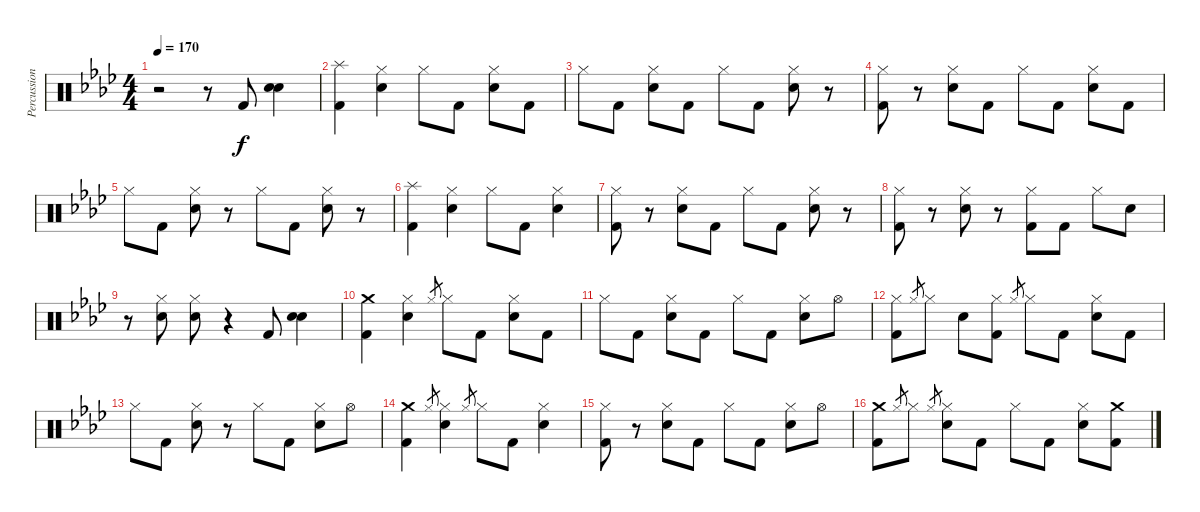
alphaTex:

\track ("Percussion" "Percussion") {instrument percussion}
\staff {score}
\articulation defaults
\ts (4 4)
\tempo 170
\clef neutral
\ks ab
r.2{dy f} r.8 "Kick (hit) 2".8 ("Electric Snare (hit)" "Electric Snare (hit)").4 |
("Splash (hit)" "Kick (hit) 2").4 ("Hi-Hat (closed)" "Electric Snare (hit)").4 "Hi-Hat (closed)".8 "Kick (hit) 2".8 ("Hi-Hat (closed)" "Electric Snare (hit)").8 "Kick (hit) 2".8 |
"Hi-Hat (closed)".8 "Kick (hit) 2".8 ("Hi-Hat (closed)" "Electric Snare (hit)").8 "Kick (hit) 2".8 "Hi-Hat (closed)".8 "Kick (hit) 2".8 ("Hi-Hat (closed)" "Electric Snare (hit)").8 r.8 |
("Hi-Hat (closed)" "Kick (hit) 2").8 r.8 ("Hi-Hat (closed)" "Electric Snare (hit)").8 "Kick (hit) 2".8 "Hi-Hat (closed)".8 "Kick (hit) 2".8 ("Hi-Hat (closed)" "Electric Snare (hit)").8 "Kick (hit) 2".8 |
"Hi-Hat (closed)".8 "Kick (hit) 2".8 ("Hi-Hat (closed)" "Electric Snare (hit)").8 r.8 "Hi-Hat (closed)".8 "Kick (hit) 2".8 ("Hi-Hat (closed)" "Electric Snare (hit)").8 r.8 |
("Splash (hit)" "Kick (hit) 2").4 ("Hi-Hat (closed)" "Electric Snare (hit)").4 "Hi-Hat (closed)".8 "Kick (hit) 2".8 ("Hi-Hat (closed)" "Electric Snare (hit)").4 |
("Hi-Hat (closed)" "Kick (hit) 2").8 r.8 ("Hi-Hat (closed)" "Electric Snare (hit)").8 "Kick (hit) 2".8 "Hi-Hat (closed)".8 "Kick (hit) 2".8 ("Hi-Hat (closed)" "Electric Snare (hit)").8 r.8 |
("Hi-Hat (closed)" "Kick (hit) 2").8 r.8 ("Hi-Hat (closed)" "Electric Snare (hit)").8 r.8 ("Hi-Hat (closed)" "Kick (hit) 2").8 "Kick (hit) 2".8 "Hi-Hat (closed)".8 "Electric Snare (hit)".8 |
r.8 ("Hi-Hat (closed)" "Electric Snare (hit)").8 ("Hi-Hat (closed)" "Electric Snare (hit)").8 r.4 "Kick (hit) 2".8 ("Electric Snare (hit)" "Electric Snare (hit)").4 |
("Crash medium (hit)" "Kick (hit) 2").4 ("Hi-Hat (closed)" "Electric Snare (hit)").4 "Hi-Hat (closed)".8{gr} "Hi-Hat (closed)".8 "Kick (hit) 2".8 ("Hi-Hat (closed)" "Electric Snare (hit)").8 "Kick (hit) 2".8 |
"Hi-Hat (closed)".8 "Kick (hit) 2".8 ("Hi-Hat (closed)" "Electric Snare (hit)").8 "Kick (hit) 2".8 "Hi-Hat (closed)".8 "Kick (hit) 2".8 ("Hi-Hat (closed)" "Electric Snare (hit)").8 "Hi-Hat (open)".8 |
("Hi-Hat (closed)" "Kick (hit) 2").8 "Hi-Hat (closed)".8{gr} "Hi-Hat (closed)".8 "Electric Snare (hit)".8 ("Hi-Hat (closed)" "Kick (hit) 2").8 "Hi-Hat (closed)".8{gr} "Hi-Hat (closed)".8 "Kick (hit) 2".8 ("Hi-Hat (closed)" "Electric Snare (hit)").8 "Kick (hit) 2".8 |
"Hi-Hat (closed)".8 "Kick (hit) 2".8 ("Hi-Hat (closed)" "Electric Snare (hit)").8 r.8 "Hi-Hat (closed)".8 "Kick (hit) 2".8 ("Hi-Hat (closed)" "Electric Snare (hit)").8 "Hi-Hat (open)".8 |
("Crash medium (hit)" "Kick (hit) 2").4 "Hi-Hat (closed)".8{gr} ("Hi-Hat (closed)" "Electric Snare (hit)").4 "Hi-Hat (closed)".8{gr} "Hi-Hat (closed)".8 "Kick (hit) 2".8 ("Hi-Hat (closed)" "Electric Snare (hit)").4 |
("Hi-Hat (closed)" "Kick (hit) 2").8 r.8 ("Hi-Hat (closed)" "Electric Snare (hit)").8 "Kick (hit) 2".8 "Hi-Hat (closed)".8 "Kick (hit) 2".8 ("Hi-Hat (closed)" "Electric Snare (hit)").8 "Hi-Hat (open)".8 |
("Crash medium (hit)" "Kick (hit) 2").8 "Hi-Hat (closed)".8{gr} "Hi-Hat (closed)".8 "Hi-Hat (closed)".8{gr} ("Hi-Hat (closed)" "Electric Snare (hit)").8 "Kick (hit) 2".8 "Hi-Hat (closed)".8 "Kick (hit) 2".8 ("Hi-Hat (closed)" "Electric Snare (hit)").8 ("Crash medium (hit)" "Kick (hit) 2").8
